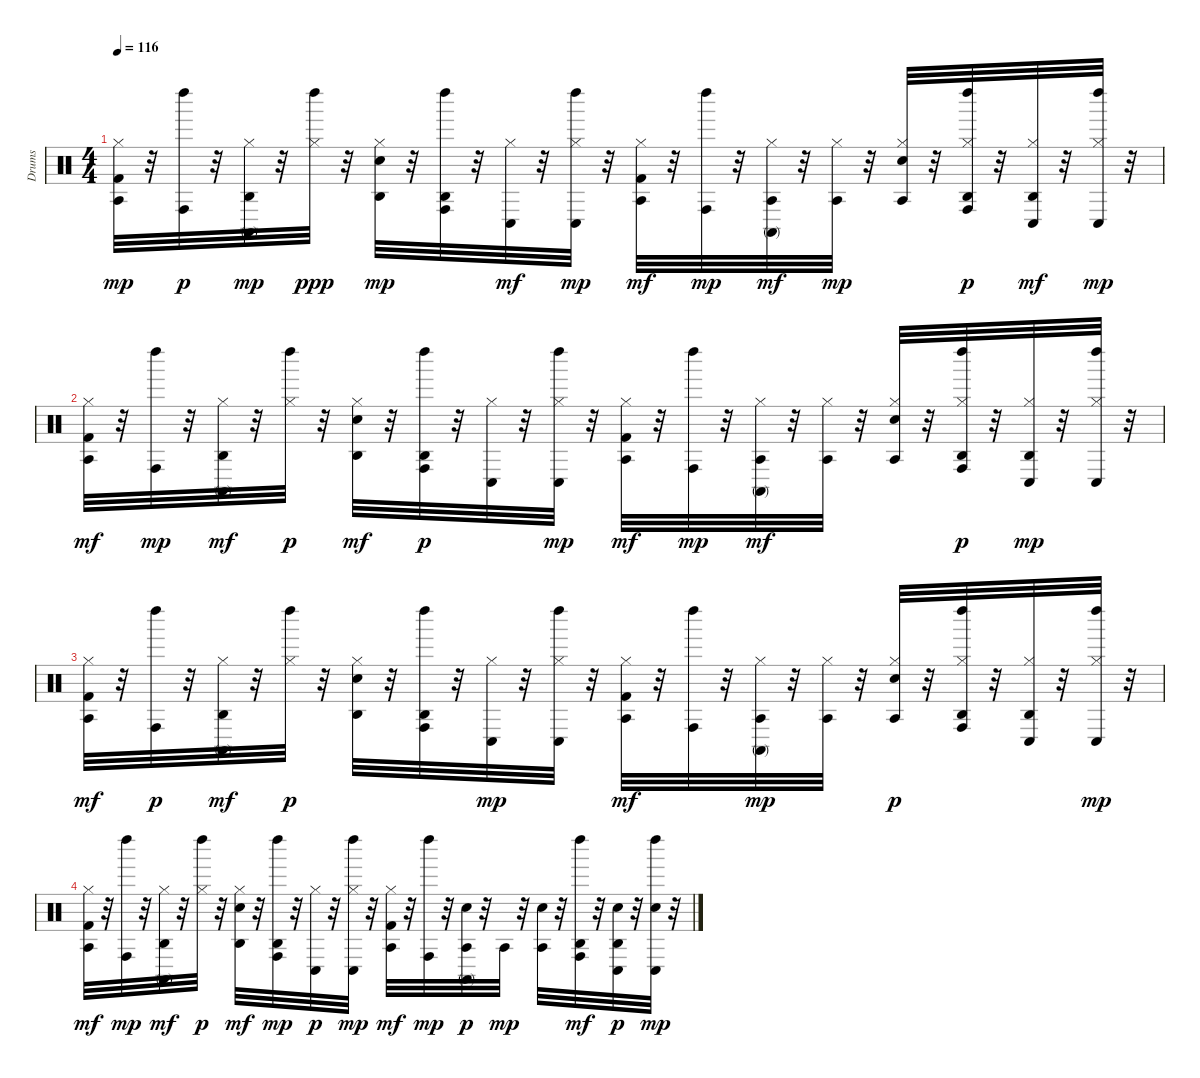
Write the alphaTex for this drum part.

\track ("Drums" "Drums") {instrument percussion}
\staff {score}
\articulation defaults
\ts (4 4)
\tempo 116
\clef neutral
\ks c
("Kick (hit) 2" "Hi-Hat (closed)" "Agogo tow (hit)").32{dy mp} r.32 ("Left Maraca (hit)" "Conga high (hit)").32{dy p} r.32 ("Hi-Hat (closed)" "Conga high (mute)" "Agogo high (hit)").32{dy mp} r.32 ("Hi-Hat (closed)" "Left Maraca (hit)").32{dy ppp} r.32 ("Hi-Hat (closed)" "Agogo high (hit)" "Snare (hit) 2").32{dy mp} r.32 ("Conga high (hit)" "Left Maraca (hit)" "Agogo high (hit)").32 r.32 ("Conga low (hit)" "Hi-Hat (closed)").32{dy mf} r.32 ("Left Maraca (hit)" "Conga low (hit)" "Hi-Hat (closed)").32{dy mp} r.32 ("Kick (hit) 2" "Agogo tow (hit)" "Hi-Hat (closed)").32{dy mf} r.32 ("Left Maraca (hit)" "Conga high (hit)").32{dy mp} r.32 ("Conga high (mute)" "Agogo tow (hit)" "Hi-Hat (closed)").32{dy mf} r.32 ("Agogo tow (hit)" "Hi-Hat (closed)").32{dy mp} r.32 ("Snare (hit) 2" "Hi-Hat (closed)" "Agogo tow (hit)").32 r.32 ("Left Maraca (hit)" "Hi-Hat (closed)" "Agogo high (hit)" "Conga high (hit)").32{dy p} r.32 ("Agogo high (hit)" "Conga low (hit)" "Hi-Hat (closed)").32{dy mf} r.32 ("Left Maraca (hit)" "Conga low (hit)" "Hi-Hat (closed)").32{dy mp} r.32 |
("Agogo tow (hit)" "Kick (hit) 2" "Hi-Hat (closed)").32{dy mf} r.32 ("Left Maraca (hit)" "Conga high (hit)").32{dy mp} r.32 ("Conga high (mute)" "Agogo high (hit)" "Hi-Hat (closed)").32{dy mf} r.32 ("Hi-Hat (closed)" "Left Maraca (hit)").32{dy p} r.32 ("Snare (hit) 2" "Agogo high (hit)" "Hi-Hat (closed)").32{dy mf} r.32 ("Agogo high (hit)" "Left Maraca (hit)" "Conga high (hit)").32{dy p} r.32 ("Hi-Hat (closed)" "Conga low (hit)").32 r.32 ("Hi-Hat (closed)" "Conga low (hit)" "Left Maraca (hit)").32{dy mp} r.32 ("Agogo tow (hit)" "Kick (hit) 2" "Hi-Hat (closed)").32{dy mf} r.32 ("Left Maraca (hit)" "Conga high (hit)").32{dy mp} r.32 ("Conga high (mute)" "Agogo tow (hit)" "Hi-Hat (closed)").32{dy mf} r.32 ("Hi-Hat (closed)" "Agogo tow (hit)").32 r.32 ("Snare (hit) 2" "Hi-Hat (closed)" "Agogo tow (hit)").32 r.32 ("Agogo high (hit)" "Left Maraca (hit)" "Hi-Hat (closed)" "Conga high (hit)").32{dy p} r.32 ("Agogo high (hit)" "Hi-Hat (closed)" "Conga low (hit)").32{dy mp} r.32 ("Conga low (hit)" "Hi-Hat (closed)" "Left Maraca (hit)").32 r.32 |
("Agogo tow (hit)" "Kick (hit) 2" "Hi-Hat (closed)").32{dy mf} r.32 ("Conga high (hit)" "Left Maraca (hit)").32{dy p} r.32 ("Agogo high (hit)" "Conga high (mute)" "Hi-Hat (closed)").32{dy mf} r.32 ("Hi-Hat (closed)" "Left Maraca (hit)").32{dy p} r.32 ("Snare (hit) 2" "Hi-Hat (closed)" "Agogo high (hit)").32 r.32 ("Left Maraca (hit)" "Conga high (hit)" "Agogo high (hit)").32 r.32 ("Hi-Hat (closed)" "Conga low (hit)").32{dy mp} r.32 ("Hi-Hat (closed)" "Conga low (hit)" "Left Maraca (hit)").32 r.32 ("Agogo tow (hit)" "Hi-Hat (closed)" "Kick (hit) 2").32{dy mf} r.32 ("Left Maraca (hit)" "Conga high (hit)").32 r.32 ("Conga high (mute)" "Hi-Hat (closed)" "Agogo tow (hit)").32{dy mp} r.32 ("Agogo tow (hit)" "Hi-Hat (closed)").32 r.32 ("Snare (hit) 2" "Hi-Hat (closed)" "Agogo tow (hit)").32{dy p} r.32 ("Hi-Hat (closed)" "Agogo high (hit)" "Conga high (hit)" "Left Maraca (hit)").32 r.32 ("Conga low (hit)" "Hi-Hat (closed)" "Agogo high (hit)").32 r.32 ("Left Maraca (hit)" "Conga low (hit)" "Hi-Hat (closed)").32{dy mp} r.32 |
("Kick (hit) 2" "Agogo tow (hit)" "Hi-Hat (closed)").32{dy mf} r.32 ("Left Maraca (hit)" "Conga high (hit)").32{dy mp} r.32 ("Conga high (mute)" "Agogo high (hit)" "Hi-Hat (closed)").32{dy mf} r.32 ("Hi-Hat (closed)" "Left Maraca (hit)").32{dy p} r.32 ("Snare (hit) 2" "Hi-Hat (closed)" "Agogo high (hit)").32{dy mf} r.32 ("Left Maraca (hit)" "Agogo high (hit)" "Conga high (hit)").32{dy mp} r.32 ("Hi-Hat (closed)" "Conga low (hit)").32{dy p} r.32 ("Conga low (hit)" "Hi-Hat (closed)" "Left Maraca (hit)").32{dy mp} r.32 ("Hi-Hat (closed)" "Kick (hit) 2" "Agogo tow (hit)").32{dy mf} r.32 ("Conga high (hit)" "Left Maraca (hit)").32{dy mp} r.32 ("Agogo tow (hit)" "Conga high (mute)" "Snare (hit) 2").32{dy p} r.32 "Agogo tow (hit)".32{dy mp} r.32 ("Agogo tow (hit)" "Snare (hit) 2").32 r.32 ("Conga high (hit)" "Left Maraca (hit)" "Agogo high (hit)").32{dy mf} r.32 ("Conga low (hit)" "Snare (hit) 2" "Agogo high (hit)").32{dy p} r.32 ("Left Maraca (hit)" "Snare (hit) 2" "Conga low (hit)").32{dy mp} r.32
